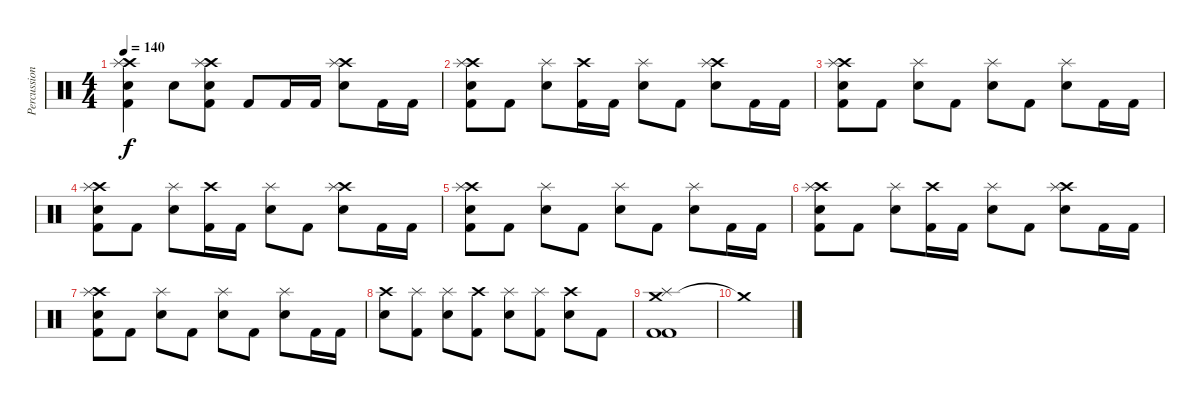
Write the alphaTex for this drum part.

\track ("Percussion" "Percussion") {instrument percussion}
\staff {score}
\articulation defaults
\ts (4 4)
\tempo 140
\clef neutral
\ks c
("Crash high (hit)" "Splash (hit)" "Electric Snare (hit)" "Kick (hit) 2").4{dy f} "Electric Snare (hit)".8 ("Crash high (hit)" "Splash (hit)" "Electric Snare (hit)" "Kick (hit) 2").8 "Kick (hit) 2".8 "Kick (hit) 2".16 "Kick (hit) 2".16 ("Crash high (hit)" "Splash (hit)" "Electric Snare (hit)").8 "Kick (hit) 2".16 "Kick (hit) 2".16 |
("Crash high (hit)" "Splash (hit)" "Electric Snare (hit)" "Kick (hit) 2").8 "Kick (hit) 2".8 ("Splash (hit)" "Electric Snare (hit)").8 ("Crash high (hit)" "Kick (hit) 2").16 "Kick (hit) 2".16 ("Splash (hit)" "Electric Snare (hit)").8 "Kick (hit) 2".8 ("Crash high (hit)" "Splash (hit)" "Electric Snare (hit)").8 "Kick (hit) 2".16 "Kick (hit) 2".16 |
("Crash high (hit)" "Splash (hit)" "Electric Snare (hit)" "Kick (hit) 2").8 "Kick (hit) 2".8 ("Splash (hit)" "Electric Snare (hit)").8 "Kick (hit) 2".8 ("Splash (hit)" "Electric Snare (hit)").8 "Kick (hit) 2".8 ("Splash (hit)" "Electric Snare (hit)").8 "Kick (hit) 2".16 "Kick (hit) 2".16 |
("Crash high (hit)" "Splash (hit)" "Electric Snare (hit)" "Kick (hit) 2").8 "Kick (hit) 2".8 ("Splash (hit)" "Electric Snare (hit)").8 ("Crash high (hit)" "Kick (hit) 2").16 "Kick (hit) 2".16 ("Splash (hit)" "Electric Snare (hit)").8 "Kick (hit) 2".8 ("Crash high (hit)" "Splash (hit)" "Electric Snare (hit)").8 "Kick (hit) 2".16 "Kick (hit) 2".16 |
("Crash high (hit)" "Splash (hit)" "Electric Snare (hit)" "Kick (hit) 2").8 "Kick (hit) 2".8 ("Splash (hit)" "Electric Snare (hit)").8 "Kick (hit) 2".8 ("Splash (hit)" "Electric Snare (hit)").8 "Kick (hit) 2".8 ("Splash (hit)" "Electric Snare (hit)").8 "Kick (hit) 2".16 "Kick (hit) 2".16 |
("Crash high (hit)" "Splash (hit)" "Electric Snare (hit)" "Kick (hit) 2").8 "Kick (hit) 2".8 ("Splash (hit)" "Electric Snare (hit)").8 ("Crash high (hit)" "Kick (hit) 2").16 "Kick (hit) 2".16 ("Splash (hit)" "Electric Snare (hit)").8 "Kick (hit) 2".8 ("Crash high (hit)" "Splash (hit)" "Electric Snare (hit)").8 "Kick (hit) 2".16 "Kick (hit) 2".16 |
("Crash high (hit)" "Splash (hit)" "Electric Snare (hit)" "Kick (hit) 2").8 "Kick (hit) 2".8 ("Splash (hit)" "Electric Snare (hit)").8 "Kick (hit) 2".8 ("Splash (hit)" "Electric Snare (hit)").8 "Kick (hit) 2".8 ("Splash (hit)" "Electric Snare (hit)").8 "Kick (hit) 2".16 "Kick (hit) 2".16 |
("Crash high (hit)" "Electric Snare (hit)").8 ("Splash (hit)" "Kick (hit) 2").8 ("Splash (hit)" "Electric Snare (hit)").8 ("Crash high (hit)" "Kick (hit) 2").8 ("Splash (hit)" "Electric Snare (hit)").8 ("Splash (hit)" "Kick (hit) 2").8 ("Crash high (hit)" "Electric Snare (hit)").8 "Kick (hit) 2".8 |
("Crash medium (hit)" "Splash (hit)" "Kick (hit) 2" "Kick (hit) 2").1 |
"Crash medium (hit)"{t}.1
